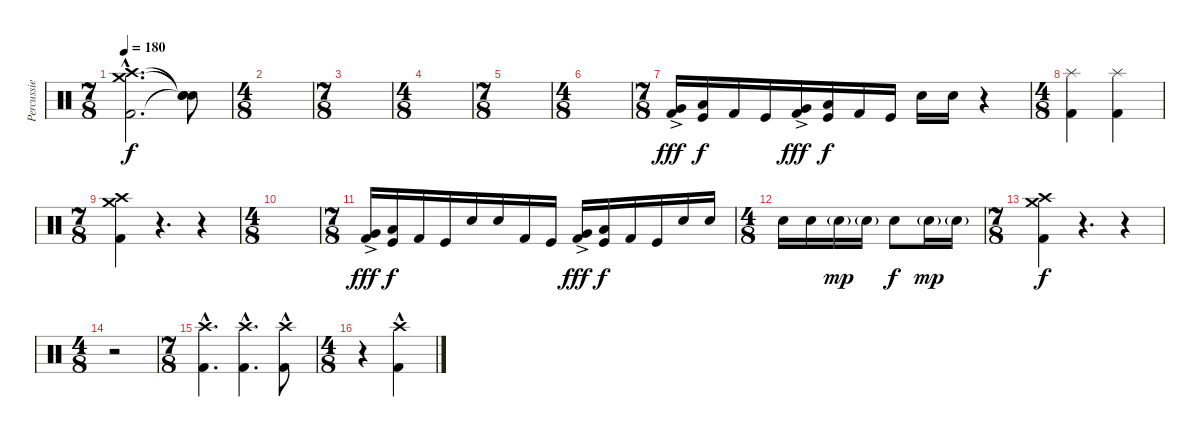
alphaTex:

\track ("Percussie" "Percussie") {instrument percussion}
\staff {score}
\articulation defaults
\ts (7 8)
\tempo 180
\clef neutral
\ks c
("Crash medium (hit)"{hac} "Crash high (hit)"{hac} "Kick (hit) 2"{hac}).2{d dy f} ("Snare (hit)"{t} "Snare (hit)"{t} "Snare (hit)"{t}).8 |
\ts (4 8)
|
\ts (7 8)
|
\ts (4 8)
|
\ts (7 8)
|
\ts (4 8)
|
\ts (7 8)
("Very Low Tom (hit)"{ac} "Kick (hit) 2").16{dy fff} ("Low Floor Tom (hit)" "Kick (hit)").16{dy f} "Kick (hit) 2".16 "Kick (hit)".16 ("Very Low Tom (hit)"{ac} "Kick (hit) 2").16{dy fff} ("Low Floor Tom (hit)" "Kick (hit)").16{dy f} "Kick (hit) 2".16 "Kick (hit)".16 "Snare (hit) 2".16 "Snare (hit) 2".16 r.4 |
\ts (4 8)
("Splash (hit)" "Kick (hit) 2").4 ("Splash (hit)" "Kick (hit) 2").4 |
\ts (7 8)
("Crash high (hit)" "Crash medium (hit)" "Kick (hit) 2").4 r.4{d} r.4 |
\ts (4 8)
|
\ts (7 8)
("Very Low Tom (hit)"{ac} "Kick (hit) 2").16{dy fff} ("Low Floor Tom (hit)" "Kick (hit)").16{dy f} "Kick (hit) 2".16 "Kick (hit)".16 "Snare (hit) 2".16 "Snare (hit) 2".16 "Kick (hit) 2".16 "Kick (hit)".16 ("Very Low Tom (hit)"{ac} "Kick (hit) 2").16{dy fff} ("Low Floor Tom (hit)" "Kick (hit)").16{dy f} "Kick (hit) 2".16 "Kick (hit)".16 "Snare (hit) 2".16 "Snare (hit) 2".16 |
\ts (4 8)
"Snare (hit) 2".16 "Snare (hit) 2".16 "Snare (hit) 2"{g}.16{dy mp} "Snare (hit) 2"{g}.16 "Snare (hit) 2".8{dy f} "Snare (hit) 2"{g}.16{dy mp} "Snare (hit) 2"{g}.16 |
\ts (7 8)
("Crash high (hit)" "Crash medium (hit)" "Kick (hit) 2").4{dy f} r.4{d} r.4 |
\ts (4 8)
r.2 |
\ts (7 8)
("Crash high (hit)"{hac} "Kick (hit) 2"{hac}).4{d} ("Crash high (hit)"{hac} "Kick (hit) 2"{hac}).4{d} ("Crash high (hit)"{hac} "Kick (hit) 2"{hac}).8 |
\ts (4 8)
r.4 ("Crash high (hit)"{hac} "Kick (hit) 2"{hac}).4
